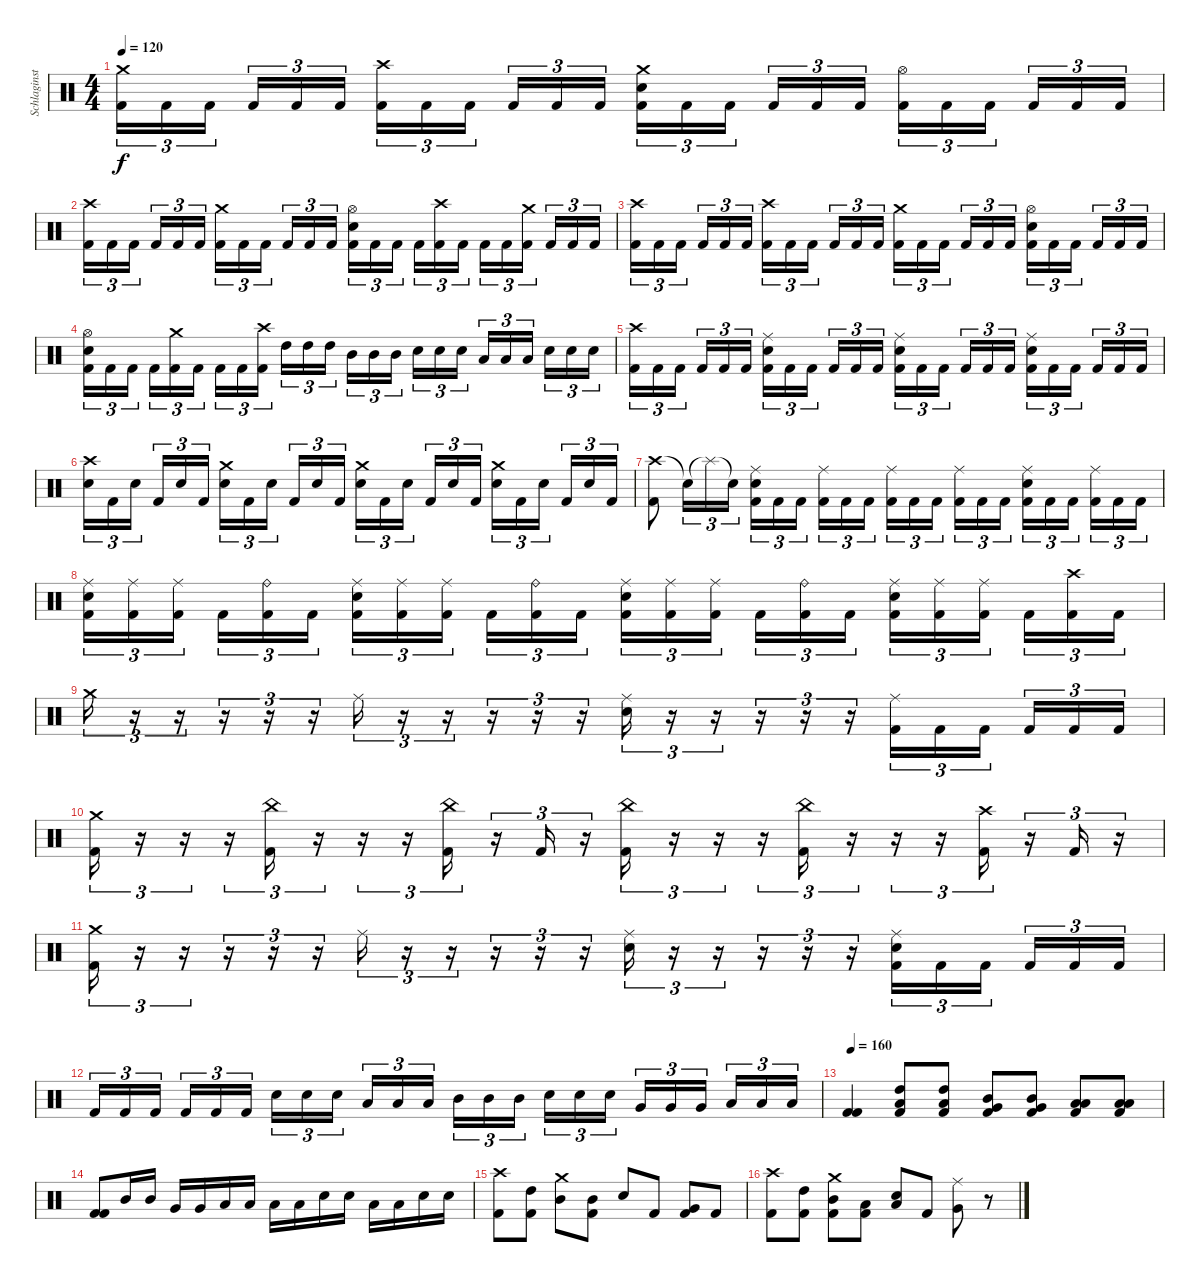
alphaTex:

\track ("Schlaginstrumente - Auswahl" "Schlaginst") {instrument percussion}
\staff {score}
\articulation defaults
\ts (4 4)
\tempo 120
\clef neutral
\ks c
("Crash medium (hit)" "Kick (hit) 2").16{tu (3 2) dy f} "Kick (hit) 2".16{tu (3 2)} "Kick (hit) 2".16{tu (3 2) beam splitsecondary} "Kick (hit) 2".16{tu (3 2)} "Kick (hit) 2".16{tu (3 2)} "Kick (hit) 2".16{tu (3 2)} ("Crash high (hit)" "Kick (hit) 2").16{tu (3 2)} "Kick (hit) 2".16{tu (3 2)} "Kick (hit) 2".16{tu (3 2) beam splitsecondary} "Kick (hit) 2".16{tu (3 2)} "Kick (hit) 2".16{tu (3 2)} "Kick (hit) 2".16{tu (3 2)} ("Crash medium (hit)" "Electric Snare (hit)" "Kick (hit) 2").16{tu (3 2)} "Kick (hit) 2".16{tu (3 2)} "Kick (hit) 2".16{tu (3 2) beam splitsecondary} "Kick (hit) 2".16{tu (3 2)} "Kick (hit) 2".16{tu (3 2)} "Kick (hit) 2".16{tu (3 2)} ("Hi-Hat (open)" "Kick (hit) 2").16{tu (3 2)} "Kick (hit) 2".16{tu (3 2)} "Kick (hit) 2".16{tu (3 2) beam splitsecondary} "Kick (hit) 2".16{tu (3 2)} "Kick (hit) 2".16{tu (3 2)} "Kick (hit) 2".16{tu (3 2)} |
("Crash high (hit)" "Kick (hit) 2").16{tu (3 2)} "Kick (hit) 2".16{tu (3 2)} "Kick (hit) 2".16{tu (3 2) beam splitsecondary} "Kick (hit) 2".16{tu (3 2)} "Kick (hit) 2".16{tu (3 2)} "Kick (hit) 2".16{tu (3 2)} ("Crash medium (hit)" "Kick (hit) 2").16{tu (3 2)} "Kick (hit) 2".16{tu (3 2)} "Kick (hit) 2".16{tu (3 2) beam splitsecondary} "Kick (hit) 2".16{tu (3 2)} "Kick (hit) 2".16{tu (3 2)} "Kick (hit) 2".16{tu (3 2)} ("Hi-Hat (open)" "Electric Snare (hit)" "Kick (hit) 2").16{tu (3 2)} "Kick (hit) 2".16{tu (3 2)} "Kick (hit) 2".16{tu (3 2) beam splitsecondary} "Kick (hit) 2".16{tu (3 2)} ("Crash high (hit)" "Kick (hit) 2").16{tu (3 2)} "Kick (hit) 2".16{tu (3 2)} "Kick (hit) 2".16{tu (3 2)} "Kick (hit) 2".16{tu (3 2)} ("Crash medium (hit)" "Kick (hit) 2").16{tu (3 2) beam splitsecondary} "Kick (hit) 2".16{tu (3 2)} "Kick (hit) 2".16{tu (3 2)} "Kick (hit) 2".16{tu (3 2)} |
("Crash high (hit)" "Kick (hit) 2").16{tu (3 2)} "Kick (hit) 2".16{tu (3 2)} "Kick (hit) 2".16{tu (3 2) beam splitsecondary} "Kick (hit) 2".16{tu (3 2)} "Kick (hit) 2".16{tu (3 2)} "Kick (hit) 2".16{tu (3 2)} ("Crash high (hit)" "Kick (hit) 2").16{tu (3 2)} "Kick (hit) 2".16{tu (3 2)} "Kick (hit) 2".16{tu (3 2) beam splitsecondary} "Kick (hit) 2".16{tu (3 2)} "Kick (hit) 2".16{tu (3 2)} "Kick (hit) 2".16{tu (3 2)} ("Crash medium (hit)" "Kick (hit) 2").16{tu (3 2)} "Kick (hit) 2".16{tu (3 2)} "Kick (hit) 2".16{tu (3 2) beam splitsecondary} "Kick (hit) 2".16{tu (3 2)} "Kick (hit) 2".16{tu (3 2)} "Kick (hit) 2".16{tu (3 2)} ("Hi-Hat (open)" "Electric Snare (hit)" "Kick (hit) 2").16{tu (3 2)} "Kick (hit) 2".16{tu (3 2)} "Kick (hit) 2".16{tu (3 2) beam splitsecondary} "Kick (hit) 2".16{tu (3 2)} "Kick (hit) 2".16{tu (3 2)} "Kick (hit) 2".16{tu (3 2)} |
("Hi-Hat (open)" "Electric Snare (hit)" "Kick (hit) 2").16{tu (3 2)} "Kick (hit) 2".16{tu (3 2)} "Kick (hit) 2".16{tu (3 2) beam splitsecondary} "Kick (hit) 2".16{tu (3 2)} ("Crash medium (hit)" "Kick (hit) 2").16{tu (3 2)} "Kick (hit) 2".16{tu (3 2)} "Kick (hit) 2".16{tu (3 2)} "Kick (hit) 2".16{tu (3 2)} ("Crash high (hit)" "Kick (hit) 2").16{tu (3 2) beam splitsecondary} "High Tom (hit)".16{tu (3 2)} "High Tom (hit)".16{tu (3 2)} "High Tom (hit)".16{tu (3 2)} "Mid Tom (hit)".16{tu (3 2)} "Mid Tom (hit)".16{tu (3 2)} "Mid Tom (hit)".16{tu (3 2) beam splitsecondary} "Electric Snare (hit)".16{tu (3 2)} "Electric Snare (hit)".16{tu (3 2)} "Electric Snare (hit)".16{tu (3 2)} "Low Tom (hit)".16{tu (3 2)} "Low Tom (hit)".16{tu (3 2)} "Low Tom (hit)".16{tu (3 2) beam splitsecondary} "Electric Snare (hit)".16{tu (3 2)} "Electric Snare (hit)".16{tu (3 2)} "Electric Snare (hit)".16{tu (3 2)} |
("Crash high (hit)" "Kick (hit) 2").16{tu (3 2)} "Kick (hit) 2".16{tu (3 2)} "Kick (hit) 2".16{tu (3 2) beam splitsecondary} "Kick (hit) 2".16{tu (3 2)} "Kick (hit) 2".16{tu (3 2)} "Kick (hit) 2".16{tu (3 2)} ("Ride (middle)" "Electric Snare (hit)" "Kick (hit) 2").16{tu (3 2)} "Kick (hit) 2".16{tu (3 2)} "Kick (hit) 2".16{tu (3 2) beam splitsecondary} "Kick (hit) 2".16{tu (3 2)} "Kick (hit) 2".16{tu (3 2)} "Kick (hit) 2".16{tu (3 2)} ("Ride (middle)" "Electric Snare (hit)" "Kick (hit) 2").16{tu (3 2)} "Kick (hit) 2".16{tu (3 2)} "Kick (hit) 2".16{tu (3 2) beam splitsecondary} "Kick (hit) 2".16{tu (3 2)} "Kick (hit) 2".16{tu (3 2)} "Kick (hit) 2".16{tu (3 2)} ("Ride (middle)" "Electric Snare (hit)" "Kick (hit) 2").16{tu (3 2)} "Kick (hit) 2".16{tu (3 2)} "Kick (hit) 2".16{tu (3 2) beam splitsecondary} "Kick (hit) 2".16{tu (3 2)} "Kick (hit) 2".16{tu (3 2)} "Kick (hit) 2".16{tu (3 2)} |
("Crash high (hit)" "Electric Snare (hit)").16{tu (3 2)} "Kick (hit) 2".16{tu (3 2)} "Electric Snare (hit)".16{tu (3 2) beam splitsecondary} "Kick (hit) 2".16{tu (3 2)} "Electric Snare (hit)".16{tu (3 2)} "Kick (hit) 2".16{tu (3 2)} ("Crash medium (hit)" "Electric Snare (hit)").16{tu (3 2)} "Kick (hit) 2".16{tu (3 2)} "Electric Snare (hit)".16{tu (3 2) beam splitsecondary} "Kick (hit) 2".16{tu (3 2)} "Electric Snare (hit)".16{tu (3 2)} "Kick (hit) 2".16{tu (3 2)} ("Crash medium (hit)" "Electric Snare (hit)").16{tu (3 2)} "Kick (hit) 2".16{tu (3 2)} "Electric Snare (hit)".16{tu (3 2) beam splitsecondary} "Kick (hit) 2".16{tu (3 2)} "Electric Snare (hit)".16{tu (3 2)} "Kick (hit) 2".16{tu (3 2)} ("Crash medium (hit)" "Electric Snare (hit)").16{tu (3 2)} "Kick (hit) 2".16{tu (3 2)} "Electric Snare (hit)".16{tu (3 2) beam splitsecondary} "Kick (hit) 2".16{tu (3 2)} "Electric Snare (hit)".16{tu (3 2)} "Kick (hit) 2".16{tu (3 2)} |
("Crash high (hit)" "Kick (hit) 2").8 "Snare (hit)"{t}.16{tu (3 2)} "Splash (hit)"{t}.16{tu (3 2)} "Snare (hit)"{t}.16{tu (3 2)} ("Ride (middle)" "Electric Snare (hit)" "Kick (hit) 2").16{tu (3 2)} "Kick (hit) 2".16{tu (3 2)} "Kick (hit) 2".16{tu (3 2) beam splitsecondary} ("Ride (middle)" "Kick (hit) 2").16{tu (3 2)} "Kick (hit) 2".16{tu (3 2)} "Kick (hit) 2".16{tu (3 2)} ("Ride (middle)" "Kick (hit) 2").16{tu (3 2)} "Kick (hit) 2".16{tu (3 2)} "Kick (hit) 2".16{tu (3 2) beam splitsecondary} ("Ride (middle)" "Kick (hit) 2").16{tu (3 2)} "Kick (hit) 2".16{tu (3 2)} "Kick (hit) 2".16{tu (3 2)} ("Ride (middle)" "Electric Snare (hit)" "Kick (hit) 2").16{tu (3 2)} "Kick (hit) 2".16{tu (3 2)} "Kick (hit) 2".16{tu (3 2) beam splitsecondary} ("Ride (middle)" "Kick (hit) 2").16{tu (3 2)} "Kick (hit) 2".16{tu (3 2)} "Kick (hit) 2".16{tu (3 2)} |
("Ride (middle)" "Electric Snare (hit)" "Kick (hit) 2").16{tu (3 2)} ("Ride (middle)" "Kick (hit) 2").16{tu (3 2)} ("Ride (middle)" "Kick (hit) 2").16{tu (3 2) beam splitsecondary} "Kick (hit) 2".16{tu (3 2)} ("Ride (bell)" "Kick (hit) 2").16{tu (3 2)} "Kick (hit) 2".16{tu (3 2)} ("Ride (middle)" "Electric Snare (hit)" "Kick (hit) 2").16{tu (3 2)} ("Ride (middle)" "Kick (hit) 2").16{tu (3 2)} ("Ride (middle)" "Kick (hit) 2").16{tu (3 2) beam splitsecondary} "Kick (hit) 2".16{tu (3 2)} ("Ride (bell)" "Kick (hit) 2").16{tu (3 2)} "Kick (hit) 2".16{tu (3 2)} ("Ride (middle)" "Electric Snare (hit)" "Kick (hit) 2").16{tu (3 2)} ("Ride (middle)" "Kick (hit) 2").16{tu (3 2)} ("Ride (middle)" "Kick (hit) 2").16{tu (3 2) beam splitsecondary} "Kick (hit) 2".16{tu (3 2)} ("Ride (bell)" "Kick (hit) 2").16{tu (3 2)} "Kick (hit) 2".16{tu (3 2)} ("Ride (middle)" "Electric Snare (hit)" "Kick (hit) 2").16{tu (3 2)} ("Ride (middle)" "Kick (hit) 2").16{tu (3 2)} ("Ride (middle)" "Kick (hit) 2").16{tu (3 2) beam splitsecondary} "Kick (hit) 2".16{tu (3 2)} ("Crash high (hit)" "Kick (hit) 2").16{tu (3 2)} "Kick (hit) 2".16{tu (3 2)} |
"Crash medium (hit)".16{tu (3 2)} r.16{tu (3 2)} r.16{tu (3 2)} r.16{tu (3 2)} r.16{tu (3 2)} r.16{tu (3 2)} "Ride (middle)".16{tu (3 2)} r.16{tu (3 2)} r.16{tu (3 2)} r.16{tu (3 2)} r.16{tu (3 2)} r.16{tu (3 2)} ("Ride (middle)" "Electric Snare (hit)").16{tu (3 2)} r.16{tu (3 2)} r.16{tu (3 2)} r.16{tu (3 2)} r.16{tu (3 2)} r.16{tu (3 2)} ("Ride (middle)" "Kick (hit) 2").16{tu (3 2)} "Kick (hit) 2".16{tu (3 2)} "Kick (hit) 2".16{tu (3 2) beam splitsecondary} "Kick (hit) 2".16{tu (3 2)} "Kick (hit) 2".16{tu (3 2)} "Kick (hit) 2".16{tu (3 2)} |
("Crash medium (hit)" "Kick (hit) 2").16{tu (3 2)} r.16{tu (3 2)} r.16{tu (3 2)} r.16{tu (3 2)} ("China (hit)" "Kick (hit) 2").16{tu (3 2)} r.16{tu (3 2)} r.16{tu (3 2)} r.16{tu (3 2)} ("China (hit)" "Kick (hit) 2").16{tu (3 2)} r.16{tu (3 2)} "Kick (hit) 2".16{tu (3 2)} r.16{tu (3 2)} ("China (hit)" "Kick (hit) 2").16{tu (3 2)} r.16{tu (3 2)} r.16{tu (3 2)} r.16{tu (3 2)} ("China (hit)" "Kick (hit) 2").16{tu (3 2)} r.16{tu (3 2)} r.16{tu (3 2)} r.16{tu (3 2)} ("Crash high (hit)" "Kick (hit) 2").16{tu (3 2)} r.16{tu (3 2)} "Kick (hit) 2".16{tu (3 2)} r.16{tu (3 2)} |
("Crash medium (hit)" "Kick (hit) 2").16{tu (3 2)} r.16{tu (3 2)} r.16{tu (3 2)} r.16{tu (3 2)} r.16{tu (3 2)} r.16{tu (3 2)} "Ride (middle)".16{tu (3 2)} r.16{tu (3 2)} r.16{tu (3 2)} r.16{tu (3 2)} r.16{tu (3 2)} r.16{tu (3 2)} ("Ride (middle)" "Electric Snare (hit)").16{tu (3 2)} r.16{tu (3 2)} r.16{tu (3 2)} r.16{tu (3 2)} r.16{tu (3 2)} r.16{tu (3 2)} ("Ride (middle)" "Electric Snare (hit)" "Kick (hit) 2").16{tu (3 2)} "Kick (hit) 2".16{tu (3 2)} "Kick (hit) 2".16{tu (3 2) beam splitsecondary} "Kick (hit) 2".16{tu (3 2)} "Kick (hit) 2".16{tu (3 2)} "Kick (hit) 2".16{tu (3 2)} |
"Kick (hit) 2".16{tu (3 2)} "Kick (hit) 2".16{tu (3 2)} "Kick (hit) 2".16{tu (3 2) beam splitsecondary} "Kick (hit) 2".16{tu (3 2)} "Kick (hit) 2".16{tu (3 2)} "Kick (hit) 2".16{tu (3 2)} "Electric Snare (hit)".16{tu (3 2)} "Electric Snare (hit)".16{tu (3 2)} "Electric Snare (hit)".16{tu (3 2) beam splitsecondary} "Low Tom (hit)".16{tu (3 2)} "Low Tom (hit)".16{tu (3 2)} "Low Tom (hit)".16{tu (3 2)} "Mid Tom (hit)".16{tu (3 2)} "Mid Tom (hit)".16{tu (3 2)} "Mid Tom (hit)".16{tu (3 2) beam splitsecondary} "Electric Snare (hit)".16{tu (3 2)} "Electric Snare (hit)".16{tu (3 2)} "Electric Snare (hit)".16{tu (3 2)} "Very Low Tom (hit)".16{tu (3 2)} "Very Low Tom (hit)".16{tu (3 2)} "Very Low Tom (hit)".16{tu (3 2) beam splitsecondary} "Low Tom (hit)".16{tu (3 2)} "Low Tom (hit)".16{tu (3 2)} "Low Tom (hit)".16{tu (3 2)} |
\tempo 160
("Kick (hit) 2" "Kick (hit) 2").4 ("Low Tom (hit)" "High Tom (hit)" "Kick (hit) 2").8 ("Low Tom (hit)" "High Tom (hit)" "Kick (hit) 2").8 ("Mid Tom (hit)" "Very Low Tom (hit)" "Kick (hit) 2").8 ("Mid Tom (hit)" "Very Low Tom (hit)" "Kick (hit) 2").8 ("Low Tom (hit)" "Low Floor Tom (hit)" "Kick (hit) 2").8 ("Low Tom (hit)" "Low Floor Tom (hit)" "Kick (hit) 2").8 |
("Kick (hit) 2" "Kick (hit) 2").8 "Mid Tom (hit)".16 "Mid Tom (hit)".16 "Very Low Tom (hit)".16 "Very Low Tom (hit)".16 "Low Tom (hit)".16 "Low Tom (hit)".16 "Low Floor Tom (hit)".16 "Low Floor Tom (hit)".16 "Electric Snare (hit)".16 "Electric Snare (hit)".16 "Low Tom (hit)".16 "Low Tom (hit)".16 "Electric Snare (hit)".16 "Electric Snare (hit)".16 |
("Crash high (hit)" "Kick (hit) 2").8 ("High Tom (hit)" "Kick (hit) 2").8 ("Crash medium (hit)" "Mid Tom (hit)").8 ("Mid Tom (hit)" "Kick (hit) 2").8 "Electric Snare (hit)".8 "Kick (hit) 2".8 ("Very Low Tom (hit)" "Kick (hit) 2").8 "Kick (hit) 2".8 |
("Crash high (hit)" "Kick (hit) 2").8 ("High Tom (hit)" "Kick (hit) 2").8 ("Crash medium (hit)" "Mid Tom (hit)" "Kick (hit) 2").8 ("Low Tom (hit)" "Kick (hit) 2").8 ("Electric Snare (hit)" "Low Floor Tom (hit)").8 "Kick (hit) 2".8 ("Ride (middle)" "Very Low Tom (hit)").8 r.8
